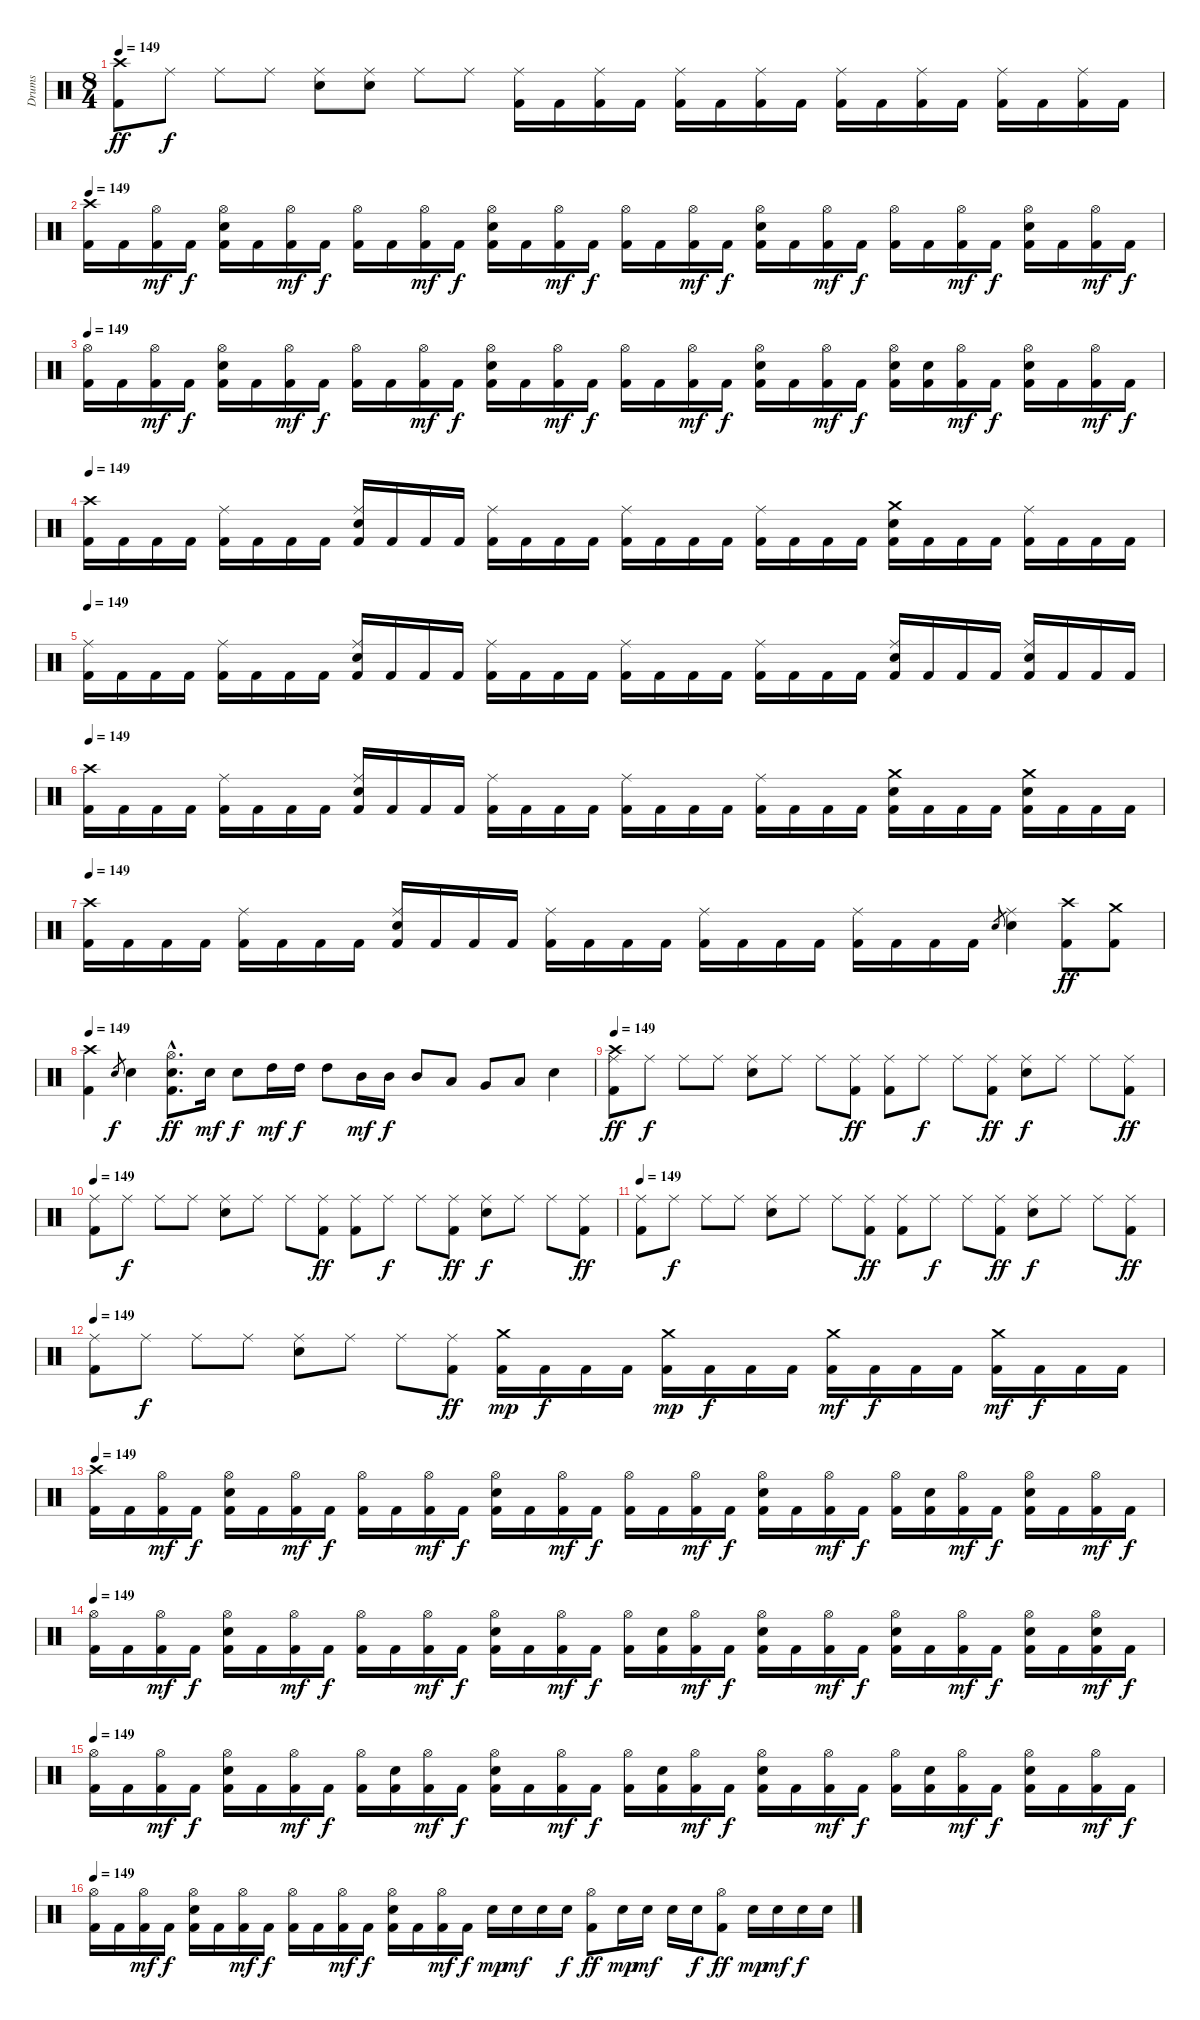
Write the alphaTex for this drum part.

\track ("Drums" "Drums") {instrument percussion}
\staff {score}
\articulation defaults
\ts (8 4)
\tempo 149
\clef neutral
\ks c
("Crash high (hit)" "Kick (hit) 2").8{dy ff} "Ride (middle)".8{dy f} "Ride (middle)".8 "Ride (middle)".8 ("Ride (middle)" "Electric Snare (hit)").8 ("Ride (middle)" "Electric Snare (hit)").8 "Ride (middle)".8 "Ride (middle)".8 ("Ride (middle)" "Kick (hit) 2").16 "Kick (hit) 2".16 ("Ride (middle)" "Kick (hit) 2").16 "Kick (hit) 2".16 ("Ride (middle)" "Kick (hit) 2").16 "Kick (hit) 2".16 ("Ride (middle)" "Kick (hit) 2").16 "Kick (hit) 2".16 ("Ride (middle)" "Kick (hit) 2").16 "Kick (hit) 2".16 ("Ride (middle)" "Kick (hit) 2").16 "Kick (hit) 2".16 ("Ride (middle)" "Kick (hit) 2").16 "Kick (hit) 2".16 ("Ride (middle)" "Kick (hit) 2").16 "Kick (hit) 2".16 |
\tempo 149
("Crash high (hit)" "Kick (hit) 2").16 "Kick (hit) 2".16 ("Hi-Hat (open)" "Kick (hit) 2").16{dy mf} "Kick (hit) 2".16{dy f} ("Hi-Hat (open)" "Electric Snare (hit)" "Kick (hit) 2").16 "Kick (hit) 2".16 ("Hi-Hat (open)" "Kick (hit) 2").16{dy mf} "Kick (hit) 2".16{dy f} ("Hi-Hat (open)" "Kick (hit) 2").16 "Kick (hit) 2".16 ("Hi-Hat (open)" "Kick (hit) 2").16{dy mf} "Kick (hit) 2".16{dy f} ("Hi-Hat (open)" "Electric Snare (hit)" "Kick (hit) 2").16 "Kick (hit) 2".16 ("Hi-Hat (open)" "Kick (hit) 2").16{dy mf} "Kick (hit) 2".16{dy f} ("Hi-Hat (open)" "Kick (hit) 2").16 "Kick (hit) 2".16 ("Hi-Hat (open)" "Kick (hit) 2").16{dy mf} "Kick (hit) 2".16{dy f} ("Hi-Hat (open)" "Electric Snare (hit)" "Kick (hit) 2").16 "Kick (hit) 2".16 ("Hi-Hat (open)" "Kick (hit) 2").16{dy mf} "Kick (hit) 2".16{dy f} ("Hi-Hat (open)" "Kick (hit) 2").16 "Kick (hit) 2".16 ("Hi-Hat (open)" "Kick (hit) 2").16{dy mf} "Kick (hit) 2".16{dy f} ("Hi-Hat (open)" "Electric Snare (hit)" "Kick (hit) 2").16 "Kick (hit) 2".16 ("Hi-Hat (open)" "Kick (hit) 2").16{dy mf} "Kick (hit) 2".16{dy f} |
\tempo 149
("Hi-Hat (open)" "Kick (hit) 2").16 "Kick (hit) 2".16 ("Hi-Hat (open)" "Kick (hit) 2").16{dy mf} "Kick (hit) 2".16{dy f} ("Hi-Hat (open)" "Electric Snare (hit)" "Kick (hit) 2").16 "Kick (hit) 2".16 ("Hi-Hat (open)" "Kick (hit) 2").16{dy mf} "Kick (hit) 2".16{dy f} ("Hi-Hat (open)" "Kick (hit) 2").16 "Kick (hit) 2".16 ("Hi-Hat (open)" "Kick (hit) 2").16{dy mf} "Kick (hit) 2".16{dy f} ("Hi-Hat (open)" "Electric Snare (hit)" "Kick (hit) 2").16 "Kick (hit) 2".16 ("Hi-Hat (open)" "Kick (hit) 2").16{dy mf} "Kick (hit) 2".16{dy f} ("Hi-Hat (open)" "Kick (hit) 2").16 "Kick (hit) 2".16 ("Hi-Hat (open)" "Kick (hit) 2").16{dy mf} "Kick (hit) 2".16{dy f} ("Hi-Hat (open)" "Electric Snare (hit)" "Kick (hit) 2").16 "Kick (hit) 2".16 ("Hi-Hat (open)" "Kick (hit) 2").16{dy mf} "Kick (hit) 2".16{dy f} ("Hi-Hat (open)" "Electric Snare (hit)" "Kick (hit) 2").16 ("Electric Snare (hit)" "Kick (hit) 2").16 ("Hi-Hat (open)" "Kick (hit) 2").16{dy mf} "Kick (hit) 2".16{dy f} ("Hi-Hat (open)" "Electric Snare (hit)" "Kick (hit) 2").16 "Kick (hit) 2".16 ("Hi-Hat (open)" "Kick (hit) 2").16{dy mf} "Kick (hit) 2".16{dy f} |
\tempo 149
("Crash high (hit)" "Kick (hit) 2").16 "Kick (hit) 2".16 "Kick (hit) 2".16 "Kick (hit) 2".16 ("Ride (middle)" "Kick (hit) 2").16 "Kick (hit) 2".16 "Kick (hit) 2".16 "Kick (hit) 2".16 ("Ride (middle)" "Electric Snare (hit)" "Kick (hit) 2").16 "Kick (hit) 2".16 "Kick (hit) 2".16 "Kick (hit) 2".16 ("Ride (middle)" "Kick (hit) 2").16 "Kick (hit) 2".16 "Kick (hit) 2".16 "Kick (hit) 2".16 ("Ride (middle)" "Kick (hit) 2").16 "Kick (hit) 2".16 "Kick (hit) 2".16 "Kick (hit) 2".16 ("Ride (middle)" "Kick (hit) 2").16 "Kick (hit) 2".16 "Kick (hit) 2".16 "Kick (hit) 2".16 ("Crash medium (hit)" "Electric Snare (hit)" "Kick (hit) 2").16 "Kick (hit) 2".16 "Kick (hit) 2".16 "Kick (hit) 2".16 ("Ride (middle)" "Kick (hit) 2").16 "Kick (hit) 2".16 "Kick (hit) 2".16 "Kick (hit) 2".16 |
\tempo 149
("Ride (middle)" "Kick (hit) 2").16 "Kick (hit) 2".16 "Kick (hit) 2".16 "Kick (hit) 2".16 ("Ride (middle)" "Kick (hit) 2").16 "Kick (hit) 2".16 "Kick (hit) 2".16 "Kick (hit) 2".16 ("Ride (middle)" "Electric Snare (hit)" "Kick (hit) 2").16 "Kick (hit) 2".16 "Kick (hit) 2".16 "Kick (hit) 2".16 ("Ride (middle)" "Kick (hit) 2").16 "Kick (hit) 2".16 "Kick (hit) 2".16 "Kick (hit) 2".16 ("Ride (middle)" "Kick (hit) 2").16 "Kick (hit) 2".16 "Kick (hit) 2".16 "Kick (hit) 2".16 ("Ride (middle)" "Kick (hit) 2").16 "Kick (hit) 2".16 "Kick (hit) 2".16 "Kick (hit) 2".16 ("Ride (middle)" "Electric Snare (hit)" "Kick (hit) 2").16 "Kick (hit) 2".16 "Kick (hit) 2".16 "Kick (hit) 2".16 ("Ride (middle)" "Electric Snare (hit)" "Kick (hit) 2").16 "Kick (hit) 2".16 "Kick (hit) 2".16 "Kick (hit) 2".16 |
\tempo 149
("Crash high (hit)" "Kick (hit) 2").16 "Kick (hit) 2".16 "Kick (hit) 2".16 "Kick (hit) 2".16 ("Ride (middle)" "Kick (hit) 2").16 "Kick (hit) 2".16 "Kick (hit) 2".16 "Kick (hit) 2".16 ("Ride (middle)" "Electric Snare (hit)" "Kick (hit) 2").16 "Kick (hit) 2".16 "Kick (hit) 2".16 "Kick (hit) 2".16 ("Ride (middle)" "Kick (hit) 2").16 "Kick (hit) 2".16 "Kick (hit) 2".16 "Kick (hit) 2".16 ("Ride (middle)" "Kick (hit) 2").16 "Kick (hit) 2".16 "Kick (hit) 2".16 "Kick (hit) 2".16 ("Ride (middle)" "Kick (hit) 2").16 "Kick (hit) 2".16 "Kick (hit) 2".16 "Kick (hit) 2".16 ("Crash medium (hit)" "Electric Snare (hit)" "Kick (hit) 2").16 "Kick (hit) 2".16 "Kick (hit) 2".16 "Kick (hit) 2".16 ("Crash medium (hit)" "Electric Snare (hit)" "Kick (hit) 2").16 "Kick (hit) 2".16 "Kick (hit) 2".16 "Kick (hit) 2".16 |
\tempo 149
("Crash high (hit)" "Kick (hit) 2").16 "Kick (hit) 2".16 "Kick (hit) 2".16 "Kick (hit) 2".16 ("Ride (middle)" "Kick (hit) 2").16 "Kick (hit) 2".16 "Kick (hit) 2".16 "Kick (hit) 2".16 ("Ride (middle)" "Electric Snare (hit)" "Kick (hit) 2").16 "Kick (hit) 2".16 "Kick (hit) 2".16 "Kick (hit) 2".16 ("Ride (middle)" "Kick (hit) 2").16 "Kick (hit) 2".16 "Kick (hit) 2".16 "Kick (hit) 2".16 ("Ride (middle)" "Kick (hit) 2").16 "Kick (hit) 2".16 "Kick (hit) 2".16 "Kick (hit) 2".16 ("Ride (middle)" "Kick (hit) 2").16 "Kick (hit) 2".16 "Kick (hit) 2".16 "Kick (hit) 2".16 "Electric Snare (hit)".8{gr} ("Ride (middle)" "Electric Snare (hit)").4 ("Crash high (hit)" "Kick (hit) 2").8{dy ff} ("Crash medium (hit)" "Kick (hit) 2").8 |
\tempo 149
("Crash high (hit)" "Kick (hit) 2").4 "Electric Snare (hit)".8{gr dy f} "Electric Snare (hit)".4 ("Hi-Hat (open)"{hac} "Electric Snare (hit)"{hac} "Kick (hit) 2"{hac}).8{d dy ff} "Electric Snare (hit)".16{dy mf} "Electric Snare (hit)".8{dy f} "High Tom (hit)".16{dy mf} "High Tom (hit)".16{dy f} "High Tom (hit)".8 "Mid Tom (hit)".16{dy mf} "Mid Tom (hit)".16{dy f} "Mid Tom (hit)".8 "Low Tom (hit)".8 "Very Low Tom (hit)".8 "Low Floor Tom (hit)".8 "Electric Snare (hit)".4 |
\tempo 149
("Crash high (hit)" "Ride (middle)" "Kick (hit) 2").8{dy ff} "Ride (middle)".8{dy f} "Ride (middle)".8 "Ride (middle)".8 ("Ride (middle)" "Electric Snare (hit)").8 "Ride (middle)".8 "Ride (middle)".8 ("Ride (middle)" "Kick (hit) 2").8{dy ff} ("Ride (middle)" "Kick (hit) 2").8 "Ride (middle)".8{dy f} "Ride (middle)".8 ("Ride (middle)" "Kick (hit) 2").8{dy ff} ("Ride (middle)" "Electric Snare (hit)").8{dy f} "Ride (middle)".8 "Ride (middle)".8 ("Ride (middle)" "Kick (hit) 2").8{dy ff} |
\tempo 149
("Ride (middle)" "Kick (hit) 2").8 "Ride (middle)".8{dy f} "Ride (middle)".8 "Ride (middle)".8 ("Ride (middle)" "Electric Snare (hit)").8 "Ride (middle)".8 "Ride (middle)".8 ("Ride (middle)" "Kick (hit) 2").8{dy ff} ("Ride (middle)" "Kick (hit) 2").8 "Ride (middle)".8{dy f} "Ride (middle)".8 ("Ride (middle)" "Kick (hit) 2").8{dy ff} ("Ride (middle)" "Electric Snare (hit)").8{dy f} "Ride (middle)".8 "Ride (middle)".8 ("Ride (middle)" "Kick (hit) 2").8{dy ff} |
\tempo 149
("Ride (middle)" "Kick (hit) 2").8 "Ride (middle)".8{dy f} "Ride (middle)".8 "Ride (middle)".8 ("Ride (middle)" "Electric Snare (hit)").8 "Ride (middle)".8 "Ride (middle)".8 ("Ride (middle)" "Kick (hit) 2").8{dy ff} ("Ride (middle)" "Kick (hit) 2").8 "Ride (middle)".8{dy f} "Ride (middle)".8 ("Ride (middle)" "Kick (hit) 2").8{dy ff} ("Ride (middle)" "Electric Snare (hit)").8{dy f} "Ride (middle)".8 "Ride (middle)".8 ("Ride (middle)" "Kick (hit) 2").8{dy ff} |
\tempo 149
("Ride (middle)" "Kick (hit) 2").8 "Ride (middle)".8{dy f} "Ride (middle)".8 "Ride (middle)".8 ("Ride (middle)" "Electric Snare (hit)").8 "Ride (middle)".8 "Ride (middle)".8 ("Ride (middle)" "Kick (hit) 2").8{dy ff} ("Crash medium (hit)" "Kick (hit) 2").16{dy mp} "Kick (hit) 2".16{dy f} "Kick (hit) 2".16 "Kick (hit) 2".16 ("Crash medium (hit)" "Kick (hit) 2").16{dy mp} "Kick (hit) 2".16{dy f} "Kick (hit) 2".16 "Kick (hit) 2".16 ("Crash medium (hit)" "Kick (hit) 2").16{dy mf} "Kick (hit) 2".16{dy f} "Kick (hit) 2".16 "Kick (hit) 2".16 ("Crash medium (hit)" "Kick (hit) 2").16{dy mf} "Kick (hit) 2".16{dy f} "Kick (hit) 2".16 "Kick (hit) 2".16 |
\tempo 149
("Crash high (hit)" "Kick (hit) 2").16 "Kick (hit) 2".16 ("Hi-Hat (open)" "Kick (hit) 2").16{dy mf} "Kick (hit) 2".16{dy f} ("Hi-Hat (open)" "Electric Snare (hit)" "Kick (hit) 2").16 "Kick (hit) 2".16 ("Hi-Hat (open)" "Kick (hit) 2").16{dy mf} "Kick (hit) 2".16{dy f} ("Hi-Hat (open)" "Kick (hit) 2").16 "Kick (hit) 2".16 ("Hi-Hat (open)" "Kick (hit) 2").16{dy mf} "Kick (hit) 2".16{dy f} ("Hi-Hat (open)" "Electric Snare (hit)" "Kick (hit) 2").16 "Kick (hit) 2".16 ("Hi-Hat (open)" "Kick (hit) 2").16{dy mf} "Kick (hit) 2".16{dy f} ("Hi-Hat (open)" "Kick (hit) 2").16 "Kick (hit) 2".16 ("Hi-Hat (open)" "Kick (hit) 2").16{dy mf} "Kick (hit) 2".16{dy f} ("Hi-Hat (open)" "Electric Snare (hit)" "Kick (hit) 2").16 "Kick (hit) 2".16 ("Hi-Hat (open)" "Kick (hit) 2").16{dy mf} "Kick (hit) 2".16{dy f} ("Hi-Hat (open)" "Kick (hit) 2").16 ("Electric Snare (hit)" "Kick (hit) 2").16 ("Hi-Hat (open)" "Kick (hit) 2").16{dy mf} "Kick (hit) 2".16{dy f} ("Hi-Hat (open)" "Electric Snare (hit)" "Kick (hit) 2").16 "Kick (hit) 2".16 ("Hi-Hat (open)" "Kick (hit) 2").16{dy mf} "Kick (hit) 2".16{dy f} |
\tempo 149
("Hi-Hat (open)" "Kick (hit) 2").16 "Kick (hit) 2".16 ("Hi-Hat (open)" "Kick (hit) 2").16{dy mf} "Kick (hit) 2".16{dy f} ("Hi-Hat (open)" "Electric Snare (hit)" "Kick (hit) 2").16 "Kick (hit) 2".16 ("Hi-Hat (open)" "Kick (hit) 2").16{dy mf} "Kick (hit) 2".16{dy f} ("Hi-Hat (open)" "Kick (hit) 2").16 "Kick (hit) 2".16 ("Hi-Hat (open)" "Kick (hit) 2").16{dy mf} "Kick (hit) 2".16{dy f} ("Hi-Hat (open)" "Electric Snare (hit)" "Kick (hit) 2").16 "Kick (hit) 2".16 ("Hi-Hat (open)" "Kick (hit) 2").16{dy mf} "Kick (hit) 2".16{dy f} ("Hi-Hat (open)" "Kick (hit) 2").16 ("Electric Snare (hit)" "Kick (hit) 2").16 ("Hi-Hat (open)" "Kick (hit) 2").16{dy mf} "Kick (hit) 2".16{dy f} ("Hi-Hat (open)" "Electric Snare (hit)" "Kick (hit) 2").16 "Kick (hit) 2".16 ("Hi-Hat (open)" "Kick (hit) 2").16{dy mf} "Kick (hit) 2".16{dy f} ("Hi-Hat (open)" "Electric Snare (hit)" "Kick (hit) 2").16 "Kick (hit) 2".16 ("Hi-Hat (open)" "Kick (hit) 2").16{dy mf} "Kick (hit) 2".16{dy f} ("Hi-Hat (open)" "Electric Snare (hit)" "Kick (hit) 2").16 "Kick (hit) 2".16 ("Hi-Hat (open)" "Electric Snare (hit)" "Kick (hit) 2").16{dy mf} "Kick (hit) 2".16{dy f} |
\tempo 149
("Hi-Hat (open)" "Kick (hit) 2").16 "Kick (hit) 2".16 ("Hi-Hat (open)" "Kick (hit) 2").16{dy mf} "Kick (hit) 2".16{dy f} ("Hi-Hat (open)" "Electric Snare (hit)" "Kick (hit) 2").16 "Kick (hit) 2".16 ("Hi-Hat (open)" "Kick (hit) 2").16{dy mf} "Kick (hit) 2".16{dy f} ("Hi-Hat (open)" "Kick (hit) 2").16 ("Electric Snare (hit)" "Kick (hit) 2").16 ("Hi-Hat (open)" "Kick (hit) 2").16{dy mf} "Kick (hit) 2".16{dy f} ("Hi-Hat (open)" "Electric Snare (hit)" "Kick (hit) 2").16 "Kick (hit) 2".16 ("Hi-Hat (open)" "Kick (hit) 2").16{dy mf} "Kick (hit) 2".16{dy f} ("Hi-Hat (open)" "Kick (hit) 2").16 ("Electric Snare (hit)" "Kick (hit) 2").16 ("Hi-Hat (open)" "Kick (hit) 2").16{dy mf} "Kick (hit) 2".16{dy f} ("Hi-Hat (open)" "Electric Snare (hit)" "Kick (hit) 2").16 "Kick (hit) 2".16 ("Hi-Hat (open)" "Kick (hit) 2").16{dy mf} "Kick (hit) 2".16{dy f} ("Hi-Hat (open)" "Kick (hit) 2").16 ("Electric Snare (hit)" "Kick (hit) 2").16 ("Hi-Hat (open)" "Kick (hit) 2").16{dy mf} "Kick (hit) 2".16{dy f} ("Hi-Hat (open)" "Electric Snare (hit)" "Kick (hit) 2").16 "Kick (hit) 2".16 ("Hi-Hat (open)" "Kick (hit) 2").16{dy mf} "Kick (hit) 2".16{dy f} |
\tempo 149
("Hi-Hat (open)" "Kick (hit) 2").16 "Kick (hit) 2".16 ("Hi-Hat (open)" "Kick (hit) 2").16{dy mf} "Kick (hit) 2".16{dy f} ("Hi-Hat (open)" "Electric Snare (hit)" "Kick (hit) 2").16 "Kick (hit) 2".16 ("Hi-Hat (open)" "Kick (hit) 2").16{dy mf} "Kick (hit) 2".16{dy f} ("Hi-Hat (open)" "Kick (hit) 2").16 "Kick (hit) 2".16 ("Hi-Hat (open)" "Kick (hit) 2").16{dy mf} "Kick (hit) 2".16{dy f} ("Hi-Hat (open)" "Electric Snare (hit)" "Kick (hit) 2").16 "Kick (hit) 2".16 ("Hi-Hat (open)" "Kick (hit) 2").16{dy mf} "Kick (hit) 2".16{dy f} "Electric Snare (hit)".16{dy mp} "Electric Snare (hit)".16{dy mf} "Electric Snare (hit)".16 "Electric Snare (hit)".16{dy f} ("Hi-Hat (open)" "Kick (hit) 2").8{dy ff} "Electric Snare (hit)".16{dy mp} "Electric Snare (hit)".16{dy mf} "Electric Snare (hit)".16 "Electric Snare (hit)".16{dy f} ("Hi-Hat (open)" "Kick (hit) 2").8{dy ff} "Electric Snare (hit)".16{dy mp} "Electric Snare (hit)".16{dy mf} "Electric Snare (hit)".16{dy f} "Electric Snare (hit)".16
